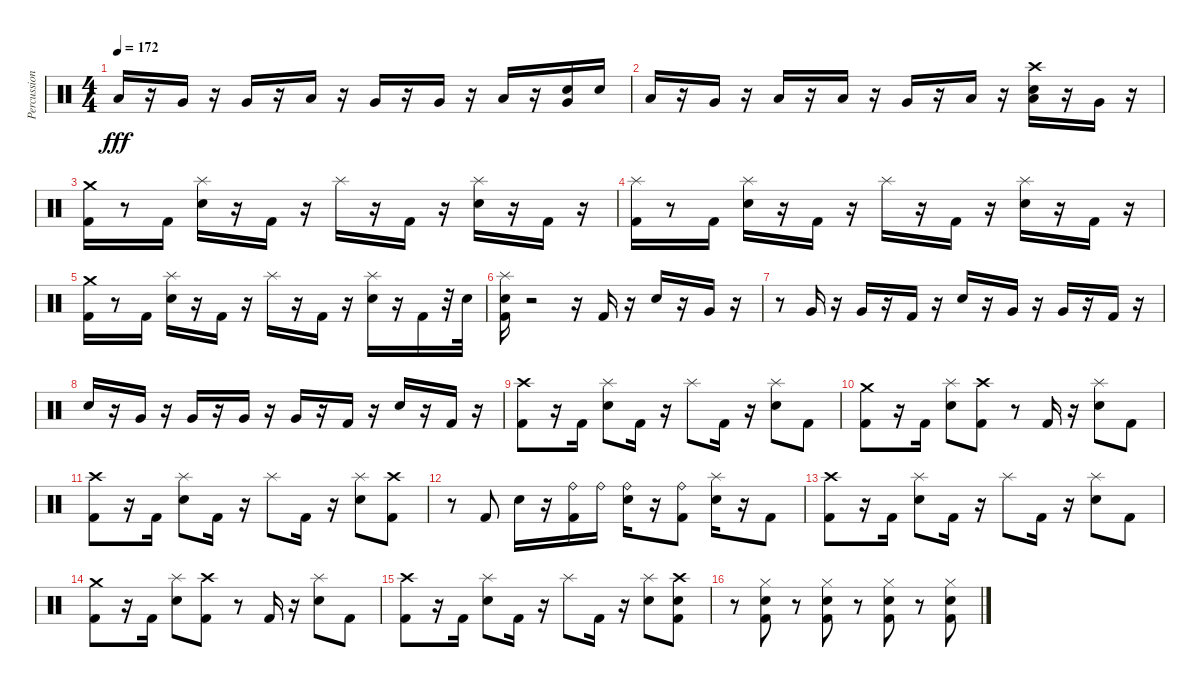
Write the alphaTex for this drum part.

\track ("Percussion" "Percussion") {instrument percussion}
\staff {score}
\articulation defaults
\ts (4 4)
\tempo 172
\clef neutral
\ks c "Low Tom (hit)".16{dy fff}
r.16 "Very Low Tom (hit)".16 r.16 "Very Low Tom (hit)".16 r.16 "Low Tom (hit)".16 r.16 "Very Low Tom (hit)".16 r.16 "Very Low Tom (hit)".16 r.16 "Low Tom (hit)".16 r.16 ("Very Low Tom (hit)" "Snare (hit) 2").16 "Snare (hit) 2".16 |
"Low Tom (hit)".16 r.16 "Very Low Tom (hit)".16 r.16 "Low Floor Tom (hit)".16 r.16 "Low Tom (hit)".16 r.16 "Very Low Tom (hit)".16 r.16 "Low Floor Tom (hit)".16 r.16 ("Low Tom (hit)" "Snare (hit) 2" "Crash high (hit)").16 r.16 "Very Low Tom (hit)".16 r.16 |
("Kick (hit) 2" "Crash medium (hit)").16 r.8 "Kick (hit) 2".16 ("Splash (hit)" "Snare (hit) 2").16 r.16 "Kick (hit) 2".16 r.16 "Splash (hit)".16 r.16 "Kick (hit) 2".16 r.16 ("Snare (hit) 2" "Splash (hit)").16 r.16 "Kick (hit) 2".16 r.16 |
("Kick (hit) 2" "Splash (hit)").16 r.8 "Kick (hit) 2".16 ("Snare (hit) 2" "Splash (hit)").16 r.16 "Kick (hit) 2".16 r.16 "Splash (hit)".16 r.16 "Kick (hit) 2".16 r.16 ("Snare (hit) 2" "Splash (hit)").16 r.16 "Kick (hit) 2".16 r.16 |
("Kick (hit) 2" "Crash medium (hit)").16 r.8 "Kick (hit) 2".16 ("Snare (hit) 2" "Splash (hit)").16 r.16 "Kick (hit) 2".16 r.16 "Splash (hit)".16 r.16 "Kick (hit) 2".16 r.16 ("Splash (hit)" "Snare (hit) 2").16 r.16 "Kick (hit) 2".16 r.32 "Snare (hit) 2".32 |
("Snare (hit) 2" "Splash (hit)" "Kick (hit) 2").16 r.2 r.16 "Kick (hit) 2".16 r.16 "Snare (hit) 2".16 r.16 "Very Low Tom (hit)".16 r.16 |
r.8 "Very Low Tom (hit)".16 r.16 "Very Low Tom (hit)".16 r.16 "Kick (hit) 2".16 r.16 "Snare (hit) 2".16 r.16 "Very Low Tom (hit)".16 r.16 "Very Low Tom (hit)".16 r.16 "Kick (hit) 2".16 r.16 |
"Snare (hit) 2".16 r.16 "Very Low Tom (hit)".16 r.16 "Very Low Tom (hit)".16 r.16 "Very Low Tom (hit)".16 r.16 "Very Low Tom (hit)".16 r.16 "Kick (hit) 2".16 r.16 "Snare (hit) 2".16 r.16 "Kick (hit) 2".16 r.16 |
("Kick (hit) 2" "Crash high (hit)").8 r.16 "Kick (hit) 2".16 ("Snare (hit) 2" "Splash (hit)").8 "Kick (hit) 2".16 r.16 "Splash (hit)".8 "Kick (hit) 2".16 r.16 ("Snare (hit) 2" "Splash (hit)").8 "Kick (hit) 2".8 |
("Crash medium (hit)" "Kick (hit) 2").8 r.16 "Kick (hit) 2".16 ("Snare (hit) 2" "Splash (hit)").8 ("Crash high (hit)" "Kick (hit) 2").8 r.8 "Kick (hit) 2".16 r.16 ("Snare (hit) 2" "Splash (hit)").8 "Kick (hit) 2".8 |
("Crash high (hit)" "Kick (hit) 2").8 r.16 "Kick (hit) 2".16 ("Snare (hit) 2" "Splash (hit)").8 "Kick (hit) 2".16 r.16 "Splash (hit)".8 "Kick (hit) 2".16 r.16 ("Splash (hit)" "Snare (hit) 2").8 ("Crash high (hit)" "Kick (hit) 2").8 |
r.8 "Kick (hit) 2".8 "Snare (hit) 2".16 r.16 ("Ride (bell)" "Kick (hit) 2").16 "Ride (bell)".16 ("Ride (bell)" "Snare (hit) 2").16 r.16 ("Ride (bell)" "Kick (hit) 2").8 ("Splash (hit)" "Snare (hit) 2").16 r.16 "Kick (hit) 2".8 |
("Kick (hit) 2" "Crash high (hit)").8 r.16 "Kick (hit) 2".16 ("Splash (hit)" "Snare (hit) 2").8 "Kick (hit) 2".16 r.16 "Splash (hit)".8 "Kick (hit) 2".16 r.16 ("Splash (hit)" "Snare (hit) 2").8 "Kick (hit) 2".8 |
("Kick (hit) 2" "Crash medium (hit)").8 r.16 "Kick (hit) 2".16 ("Snare (hit) 2" "Splash (hit)").8 ("Crash high (hit)" "Kick (hit) 2").8 r.8 "Kick (hit) 2".16 r.16 ("Snare (hit) 2" "Splash (hit)").8 "Kick (hit) 2".8 |
("Kick (hit) 2" "Crash high (hit)").8 r.16 "Kick (hit) 2".16 ("Snare (hit) 2" "Splash (hit)").8 "Kick (hit) 2".16 r.16 "Splash (hit)".8 "Kick (hit) 2".16 r.16 ("Snare (hit) 2" "Splash (hit)").8 ("Snare (hit) 2" "Kick (hit) 2" "Crash high (hit)").8 |
r.8 ("Hi-Hat (closed)" "Snare (hit) 2" "Kick (hit) 2").8 r.8 ("Kick (hit) 2" "Snare (hit) 2" "Hi-Hat (closed)").8 r.8 ("Hi-Hat (closed)" "Snare (hit) 2" "Kick (hit) 2").8 r.8 ("Hi-Hat (closed)" "Snare (hit) 2" "Kick (hit) 2").8
